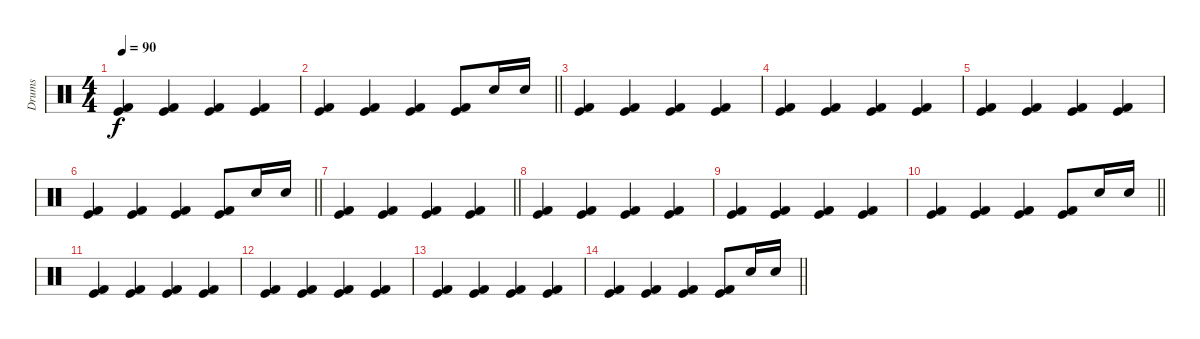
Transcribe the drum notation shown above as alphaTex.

\track ("Drums" "Drums") {instrument percussion}
\staff {score}
\articulation defaults
\ts (4 4)
\tempo 90
\clef neutral
\ks c
("Kick (hit)" "Kick (hit) 2").4{dy f} ("Kick (hit)" "Kick (hit) 2").4 ("Kick (hit)" "Kick (hit) 2").4 ("Kick (hit)" "Kick (hit) 2").4 |
\barLineRight lightlight
("Kick (hit)" "Kick (hit) 2").4 ("Kick (hit)" "Kick (hit) 2").4 ("Kick (hit)" "Kick (hit) 2").4 ("Kick (hit)" "Kick (hit) 2").8 "Snare (hit) 2".16 "Snare (hit) 2".16 |
("Kick (hit)" "Kick (hit) 2").4 ("Kick (hit)" "Kick (hit) 2").4 ("Kick (hit)" "Kick (hit) 2").4 ("Kick (hit)" "Kick (hit) 2").4 |
("Kick (hit)" "Kick (hit) 2").4 ("Kick (hit)" "Kick (hit) 2").4 ("Kick (hit)" "Kick (hit) 2").4 ("Kick (hit)" "Kick (hit) 2").4 |
("Kick (hit)" "Kick (hit) 2").4 ("Kick (hit)" "Kick (hit) 2").4 ("Kick (hit)" "Kick (hit) 2").4 ("Kick (hit)" "Kick (hit) 2").4 |
\barLineRight lightlight
("Kick (hit)" "Kick (hit) 2").4 ("Kick (hit)" "Kick (hit) 2").4 ("Kick (hit)" "Kick (hit) 2").4 ("Kick (hit)" "Kick (hit) 2").8 "Snare (hit) 2".16 "Snare (hit) 2".16 |
\barLineRight lightlight
("Kick (hit)" "Kick (hit) 2").4 ("Kick (hit)" "Kick (hit) 2").4 ("Kick (hit)" "Kick (hit) 2").4 ("Kick (hit)" "Kick (hit) 2").4 |
("Kick (hit)" "Kick (hit) 2").4 ("Kick (hit)" "Kick (hit) 2").4 ("Kick (hit)" "Kick (hit) 2").4 ("Kick (hit)" "Kick (hit) 2").4 |
("Kick (hit)" "Kick (hit) 2").4 ("Kick (hit)" "Kick (hit) 2").4 ("Kick (hit)" "Kick (hit) 2").4 ("Kick (hit)" "Kick (hit) 2").4 |
\barLineRight lightlight
("Kick (hit)" "Kick (hit) 2").4 ("Kick (hit)" "Kick (hit) 2").4 ("Kick (hit)" "Kick (hit) 2").4 ("Kick (hit)" "Kick (hit) 2").8 "Snare (hit) 2".16 "Snare (hit) 2".16 |
("Kick (hit)" "Kick (hit) 2").4 ("Kick (hit)" "Kick (hit) 2").4 ("Kick (hit)" "Kick (hit) 2").4 ("Kick (hit)" "Kick (hit) 2").4 |
("Kick (hit)" "Kick (hit) 2").4 ("Kick (hit)" "Kick (hit) 2").4 ("Kick (hit)" "Kick (hit) 2").4 ("Kick (hit)" "Kick (hit) 2").4 |
("Kick (hit)" "Kick (hit) 2").4 ("Kick (hit)" "Kick (hit) 2").4 ("Kick (hit)" "Kick (hit) 2").4 ("Kick (hit)" "Kick (hit) 2").4 |
\barLineRight lightlight
("Kick (hit)" "Kick (hit) 2").4 ("Kick (hit)" "Kick (hit) 2").4 ("Kick (hit)" "Kick (hit) 2").4 ("Kick (hit)" "Kick (hit) 2").8 "Snare (hit) 2".16 "Snare (hit) 2".16
